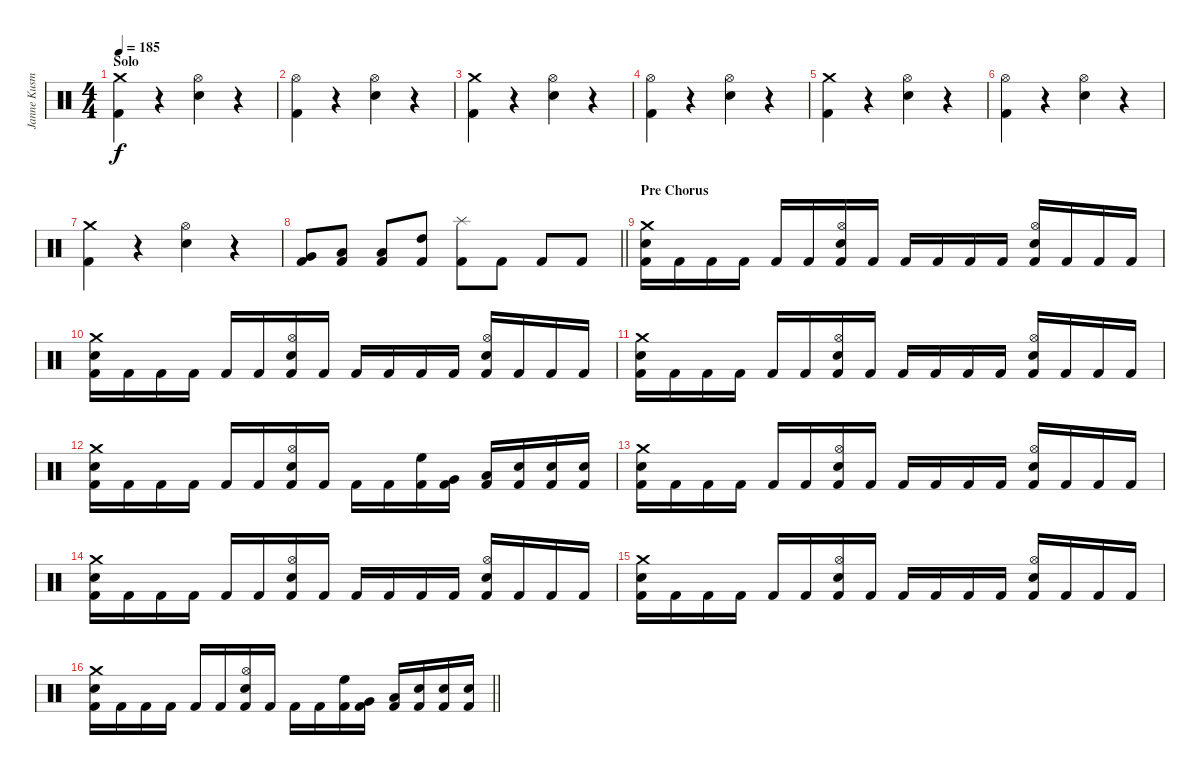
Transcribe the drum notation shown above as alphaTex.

\track ("Janne Kusmin" "Janne Kusm") {instrument percussion}
\staff {score}
\articulation defaults
\ts (4 4)
\section ("" "Solo")
\tempo 185
\clef neutral
\ks c
("Crash medium (hit)" "Kick (hit) 2").4{dy f} r.4 ("Hi-Hat (open)" "Electric Snare (hit)").4 r.4 |
("Hi-Hat (open)" "Kick (hit) 2").4 r.4 ("Hi-Hat (open)" "Electric Snare (hit)").4 r.4 |
("Crash medium (hit)" "Kick (hit) 2").4 r.4 ("Hi-Hat (open)" "Electric Snare (hit)").4 r.4 |
("Hi-Hat (open)" "Kick (hit) 2").4 r.4 ("Hi-Hat (open)" "Electric Snare (hit)").4 r.4 |
("Crash medium (hit)" "Kick (hit) 2").4 r.4 ("Hi-Hat (open)" "Electric Snare (hit)").4 r.4 |
("Hi-Hat (open)" "Kick (hit) 2").4 r.4 ("Hi-Hat (open)" "Electric Snare (hit)").4 r.4 |
("Crash medium (hit)" "Kick (hit) 2").4 r.4 ("Hi-Hat (open)" "Electric Snare (hit)").4 r.4 |
\barLineRight lightlight
("Very Low Tom (hit)" "Kick (hit) 2").8 ("Low Floor Tom (hit)" "Kick (hit) 2").8 ("Low Tom (hit)" "Kick (hit) 2").8 ("High Tom (hit)" "Kick (hit) 2").8 ("Splash (hit)" "Kick (hit) 2").8 "Kick (hit) 2".8 "Kick (hit) 2".8 "Kick (hit) 2".8 |
\section ("" "Pre Chorus")
("Crash medium (hit)" "Electric Snare (hit)" "Kick (hit) 2").16 "Kick (hit) 2".16 "Kick (hit) 2".16 "Kick (hit) 2".16 "Kick (hit) 2".16 "Kick (hit) 2".16 ("Hi-Hat (open)" "Electric Snare (hit)" "Kick (hit) 2").16 "Kick (hit) 2".16 "Kick (hit) 2".16 "Kick (hit) 2".16 "Kick (hit) 2".16 "Kick (hit) 2".16 ("Hi-Hat (open)" "Electric Snare (hit)" "Kick (hit) 2").16 "Kick (hit) 2".16 "Kick (hit) 2".16 "Kick (hit) 2".16 |
("Crash medium (hit)" "Electric Snare (hit)" "Kick (hit) 2").16 "Kick (hit) 2".16 "Kick (hit) 2".16 "Kick (hit) 2".16 "Kick (hit) 2".16 "Kick (hit) 2".16 ("Hi-Hat (open)" "Electric Snare (hit)" "Kick (hit) 2").16 "Kick (hit) 2".16 "Kick (hit) 2".16 "Kick (hit) 2".16 "Kick (hit) 2".16 "Kick (hit) 2".16 ("Hi-Hat (open)" "Electric Snare (hit)" "Kick (hit) 2").16 "Kick (hit) 2".16 "Kick (hit) 2".16 "Kick (hit) 2".16 |
("Crash medium (hit)" "Electric Snare (hit)" "Kick (hit) 2").16 "Kick (hit) 2".16 "Kick (hit) 2".16 "Kick (hit) 2".16 "Kick (hit) 2".16 "Kick (hit) 2".16 ("Hi-Hat (open)" "Electric Snare (hit)" "Kick (hit) 2").16 "Kick (hit) 2".16 "Kick (hit) 2".16 "Kick (hit) 2".16 "Kick (hit) 2".16 "Kick (hit) 2".16 ("Hi-Hat (open)" "Electric Snare (hit)" "Kick (hit) 2").16 "Kick (hit) 2".16 "Kick (hit) 2".16 "Kick (hit) 2".16 |
("Crash medium (hit)" "Electric Snare (hit)" "Kick (hit) 2").16 "Kick (hit) 2".16 "Kick (hit) 2".16 "Kick (hit) 2".16 "Kick (hit) 2".16 "Kick (hit) 2".16 ("Hi-Hat (open)" "Electric Snare (hit)" "Kick (hit) 2").16 "Kick (hit) 2".16 "Kick (hit) 2".16 "Kick (hit) 2".16 ("High Floor Tom (hit)" "Kick (hit) 2").16 ("Very Low Tom (hit)" "Kick (hit) 2").16 ("Low Floor Tom (hit)" "Kick (hit) 2").16 ("Electric Snare (hit)" "Kick (hit) 2").16 ("Electric Snare (hit)" "Kick (hit) 2").16 ("Electric Snare (hit)" "Kick (hit) 2").16 |
("Crash medium (hit)" "Electric Snare (hit)" "Kick (hit) 2").16 "Kick (hit) 2".16 "Kick (hit) 2".16 "Kick (hit) 2".16 "Kick (hit) 2".16 "Kick (hit) 2".16 ("Hi-Hat (open)" "Electric Snare (hit)" "Kick (hit) 2").16 "Kick (hit) 2".16 "Kick (hit) 2".16 "Kick (hit) 2".16 "Kick (hit) 2".16 "Kick (hit) 2".16 ("Hi-Hat (open)" "Electric Snare (hit)" "Kick (hit) 2").16 "Kick (hit) 2".16 "Kick (hit) 2".16 "Kick (hit) 2".16 |
("Crash medium (hit)" "Electric Snare (hit)" "Kick (hit) 2").16 "Kick (hit) 2".16 "Kick (hit) 2".16 "Kick (hit) 2".16 "Kick (hit) 2".16 "Kick (hit) 2".16 ("Hi-Hat (open)" "Electric Snare (hit)" "Kick (hit) 2").16 "Kick (hit) 2".16 "Kick (hit) 2".16 "Kick (hit) 2".16 "Kick (hit) 2".16 "Kick (hit) 2".16 ("Hi-Hat (open)" "Electric Snare (hit)" "Kick (hit) 2").16 "Kick (hit) 2".16 "Kick (hit) 2".16 "Kick (hit) 2".16 |
("Crash medium (hit)" "Electric Snare (hit)" "Kick (hit) 2").16 "Kick (hit) 2".16 "Kick (hit) 2".16 "Kick (hit) 2".16 "Kick (hit) 2".16 "Kick (hit) 2".16 ("Hi-Hat (open)" "Electric Snare (hit)" "Kick (hit) 2").16 "Kick (hit) 2".16 "Kick (hit) 2".16 "Kick (hit) 2".16 "Kick (hit) 2".16 "Kick (hit) 2".16 ("Hi-Hat (open)" "Electric Snare (hit)" "Kick (hit) 2").16 "Kick (hit) 2".16 "Kick (hit) 2".16 "Kick (hit) 2".16 |
\barLineRight lightlight
("Crash medium (hit)" "Electric Snare (hit)" "Kick (hit) 2").16 "Kick (hit) 2".16 "Kick (hit) 2".16 "Kick (hit) 2".16 "Kick (hit) 2".16 "Kick (hit) 2".16 ("Hi-Hat (open)" "Electric Snare (hit)" "Kick (hit) 2").16 "Kick (hit) 2".16 "Kick (hit) 2".16 "Kick (hit) 2".16 ("High Floor Tom (hit)" "Kick (hit) 2").16 ("Very Low Tom (hit)" "Kick (hit) 2").16 ("Low Floor Tom (hit)" "Kick (hit) 2").16 ("Electric Snare (hit)" "Kick (hit) 2").16 ("Electric Snare (hit)" "Kick (hit) 2").16 ("Electric Snare (hit)" "Kick (hit) 2").16
